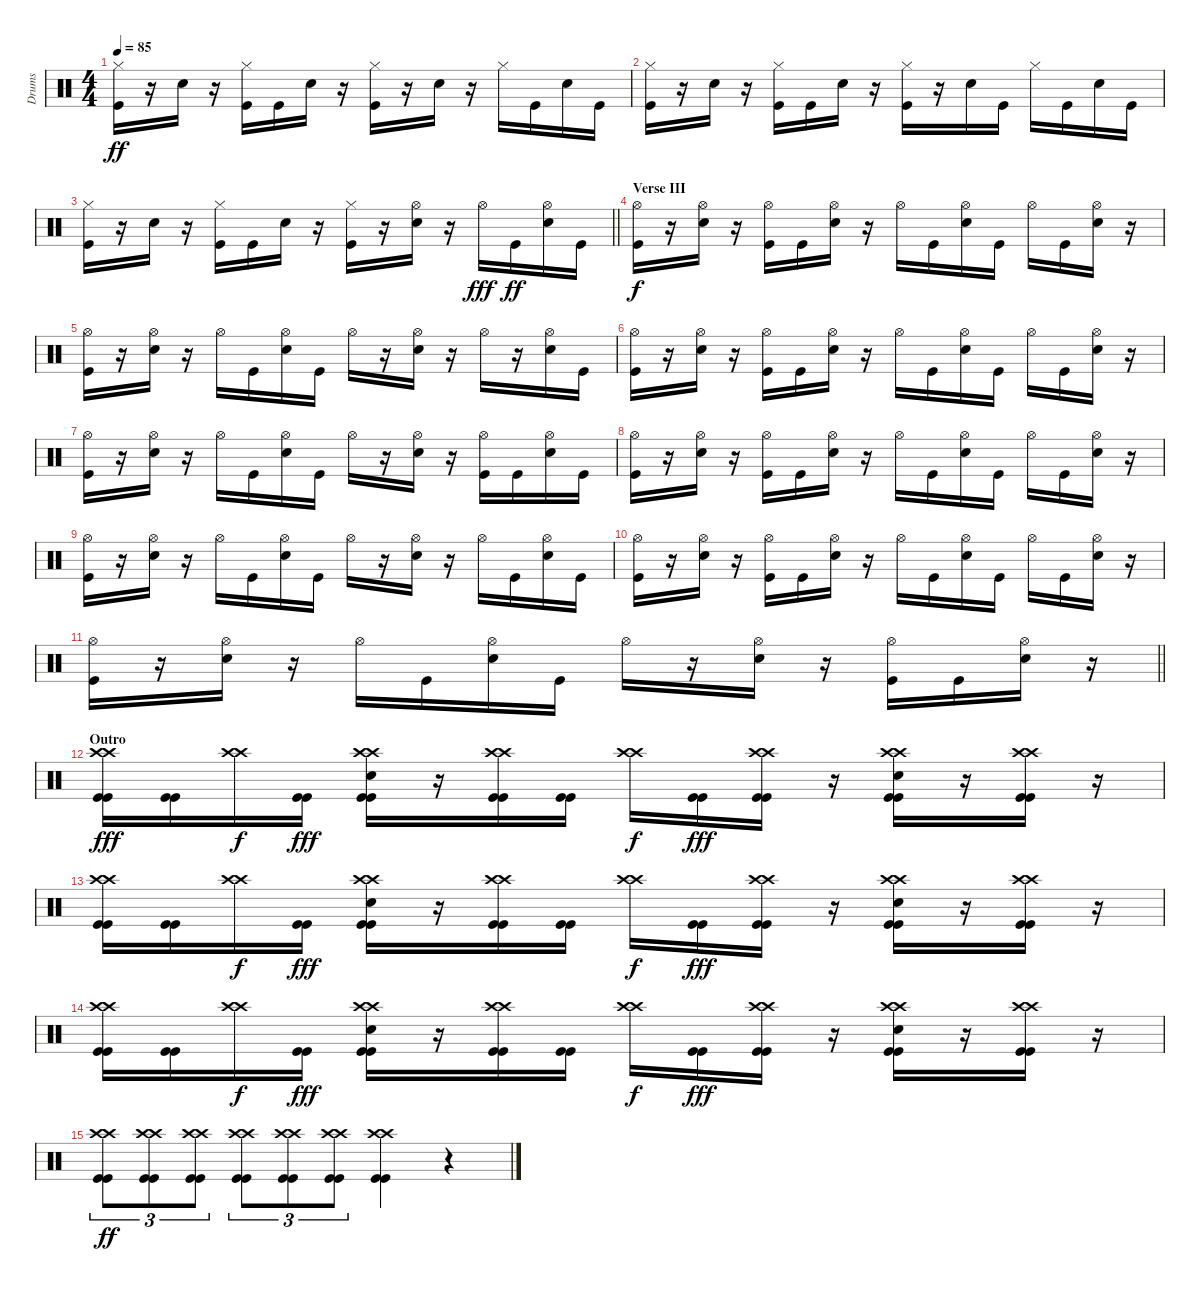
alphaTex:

\track ("Drums" "Drums") {instrument percussion}
\staff {score}
\articulation defaults
\ts (4 4)
\tempo 85
\clef neutral
\ks c
("Hi-Hat (closed)" "Kick (hit)").16{dy ff} r.16 "Electric Snare (hit)".16 r.16 ("Hi-Hat (closed)" "Kick (hit)").16 "Kick (hit)".16 "Electric Snare (hit)".16 r.16 ("Hi-Hat (closed)" "Kick (hit)").16 r.16 "Electric Snare (hit)".16 r.16 "Hi-Hat (closed)".16 "Kick (hit)".16 "Electric Snare (hit)".16 "Kick (hit)".16 |
("Hi-Hat (closed)" "Kick (hit)").16 r.16 "Electric Snare (hit)".16 r.16 ("Hi-Hat (closed)" "Kick (hit)").16 "Kick (hit)".16 "Electric Snare (hit)".16 r.16 ("Hi-Hat (closed)" "Kick (hit)").16 r.16 "Electric Snare (hit)".16 "Kick (hit)".16 "Hi-Hat (closed)".16 "Kick (hit)".16 "Electric Snare (hit)".16 "Kick (hit)".16 |
\barLineRight lightlight
("Hi-Hat (closed)" "Kick (hit)").16 r.16 "Electric Snare (hit)".16 r.16 ("Hi-Hat (closed)" "Kick (hit)").16 "Kick (hit)".16 "Electric Snare (hit)".16 r.16 ("Hi-Hat (closed)" "Kick (hit)").16 r.16 ("Hi-Hat (open)" "Electric Snare (hit)").16 r.16 "Hi-Hat (open)".16{dy fff} "Kick (hit)".16{dy ff} ("Hi-Hat (open)" "Electric Snare (hit)").16 "Kick (hit)".16 |
\section ("" "Verse III")
("Hi-Hat (open)" "Kick (hit)").16{dy f volume 16} r.16 ("Hi-Hat (open)" "Electric Snare (hit)").16 r.16 ("Hi-Hat (open)" "Kick (hit)").16 "Kick (hit)".16 ("Hi-Hat (open)" "Electric Snare (hit)").16 r.16 "Hi-Hat (open)".16 "Kick (hit)".16 ("Hi-Hat (open)" "Electric Snare (hit)").16 "Kick (hit)".16 "Hi-Hat (open)".16 "Kick (hit)".16 ("Hi-Hat (open)" "Electric Snare (hit)").16 r.16 |
("Hi-Hat (open)" "Kick (hit)").16 r.16 ("Hi-Hat (open)" "Electric Snare (hit)").16 r.16 "Hi-Hat (open)".16 "Kick (hit)".16 ("Hi-Hat (open)" "Electric Snare (hit)").16 "Kick (hit)".16 "Hi-Hat (open)".16 r.16 ("Hi-Hat (open)" "Electric Snare (hit)").16 r.16 "Hi-Hat (open)".16 r.16 ("Hi-Hat (open)" "Electric Snare (hit)").16 "Kick (hit)".16 |
("Hi-Hat (open)" "Kick (hit)").16 r.16 ("Hi-Hat (open)" "Electric Snare (hit)").16 r.16 ("Hi-Hat (open)" "Kick (hit)").16 "Kick (hit)".16 ("Hi-Hat (open)" "Electric Snare (hit)").16 r.16 "Hi-Hat (open)".16 "Kick (hit)".16 ("Hi-Hat (open)" "Electric Snare (hit)").16 "Kick (hit)".16 "Hi-Hat (open)".16 "Kick (hit)".16 ("Hi-Hat (open)" "Electric Snare (hit)").16 r.16 |
("Hi-Hat (open)" "Kick (hit)").16 r.16 ("Hi-Hat (open)" "Electric Snare (hit)").16 r.16 "Hi-Hat (open)".16 "Kick (hit)".16 ("Hi-Hat (open)" "Electric Snare (hit)").16 "Kick (hit)".16 "Hi-Hat (open)".16 r.16 ("Hi-Hat (open)" "Electric Snare (hit)").16 r.16 ("Hi-Hat (open)" "Kick (hit)").16 "Kick (hit)".16 ("Hi-Hat (open)" "Electric Snare (hit)").16 "Kick (hit)".16 |
("Hi-Hat (open)" "Kick (hit)").16{volume 16} r.16 ("Hi-Hat (open)" "Electric Snare (hit)").16 r.16 ("Hi-Hat (open)" "Kick (hit)").16 "Kick (hit)".16 ("Hi-Hat (open)" "Electric Snare (hit)").16 r.16 "Hi-Hat (open)".16 "Kick (hit)".16 ("Hi-Hat (open)" "Electric Snare (hit)").16 "Kick (hit)".16 "Hi-Hat (open)".16 "Kick (hit)".16 ("Hi-Hat (open)" "Electric Snare (hit)").16 r.16 |
("Hi-Hat (open)" "Kick (hit)").16 r.16 ("Hi-Hat (open)" "Electric Snare (hit)").16 r.16 "Hi-Hat (open)".16 "Kick (hit)".16 ("Hi-Hat (open)" "Electric Snare (hit)").16 "Kick (hit)".16 "Hi-Hat (open)".16 r.16 ("Hi-Hat (open)" "Electric Snare (hit)").16 r.16 "Hi-Hat (open)".16 "Kick (hit)".16 ("Hi-Hat (open)" "Electric Snare (hit)").16 "Kick (hit)".16 |
("Hi-Hat (open)" "Kick (hit)").16 r.16 ("Hi-Hat (open)" "Electric Snare (hit)").16 r.16 ("Hi-Hat (open)" "Kick (hit)").16 "Kick (hit)".16 ("Hi-Hat (open)" "Electric Snare (hit)").16 r.16 "Hi-Hat (open)".16 "Kick (hit)".16 ("Hi-Hat (open)" "Electric Snare (hit)").16 "Kick (hit)".16 "Hi-Hat (open)".16 "Kick (hit)".16 ("Hi-Hat (open)" "Electric Snare (hit)").16 r.16 |
\barLineRight lightlight
("Hi-Hat (open)" "Kick (hit)").16 r.16 ("Hi-Hat (open)" "Electric Snare (hit)").16 r.16 "Hi-Hat (open)".16 "Kick (hit)".16 ("Hi-Hat (open)" "Electric Snare (hit)").16 "Kick (hit)".16 "Hi-Hat (open)".16 r.16 ("Hi-Hat (open)" "Electric Snare (hit)").16 r.16 ("Hi-Hat (open)" "Kick (hit)").16 "Kick (hit)".16 ("Hi-Hat (open)" "Electric Snare (hit)").16 r.16 |
\section ("" "Outro")
("Crash high (hit)" "Crash high (hit)" "Kick (hit)" "Kick (hit)").16{dy fff} ("Kick (hit)" "Kick (hit)").16 ("Crash high (hit)" "Crash high (hit)").16{dy f} ("Kick (hit)" "Kick (hit)").16{dy fff} ("Crash high (hit)" "Crash high (hit)" "Electric Snare (hit)" "Kick (hit)" "Kick (hit)").16 r.16 ("Crash high (hit)" "Crash high (hit)" "Kick (hit)" "Kick (hit)").16 ("Kick (hit)" "Kick (hit)").16 ("Crash high (hit)" "Crash high (hit)").16{dy f} ("Kick (hit)" "Kick (hit)").16{dy fff} ("Crash high (hit)" "Crash high (hit)" "Kick (hit)" "Kick (hit)").16 r.16 ("Crash high (hit)" "Crash high (hit)" "Electric Snare (hit)" "Kick (hit)" "Kick (hit)").16 r.16 ("Crash high (hit)" "Crash high (hit)" "Kick (hit)" "Kick (hit)").16 r.16 |
("Crash high (hit)" "Crash high (hit)" "Kick (hit)" "Kick (hit)").16 ("Kick (hit)" "Kick (hit)").16 ("Crash high (hit)" "Crash high (hit)").16{dy f} ("Kick (hit)" "Kick (hit)").16{dy fff} ("Crash high (hit)" "Crash high (hit)" "Electric Snare (hit)" "Kick (hit)" "Kick (hit)").16 r.16 ("Crash high (hit)" "Crash high (hit)" "Kick (hit)" "Kick (hit)").16 ("Kick (hit)" "Kick (hit)").16 ("Crash high (hit)" "Crash high (hit)").16{dy f} ("Kick (hit)" "Kick (hit)").16{dy fff} ("Crash high (hit)" "Crash high (hit)" "Kick (hit)" "Kick (hit)").16 r.16 ("Crash high (hit)" "Crash high (hit)" "Electric Snare (hit)" "Kick (hit)" "Kick (hit)").16 r.16 ("Crash high (hit)" "Crash high (hit)" "Kick (hit)" "Kick (hit)").16 r.16 |
("Crash high (hit)" "Crash high (hit)" "Kick (hit)" "Kick (hit)").16 ("Kick (hit)" "Kick (hit)").16 ("Crash high (hit)" "Crash high (hit)").16{dy f} ("Kick (hit)" "Kick (hit)").16{dy fff} ("Crash high (hit)" "Crash high (hit)" "Electric Snare (hit)" "Kick (hit)" "Kick (hit)").16 r.16 ("Crash high (hit)" "Crash high (hit)" "Kick (hit)" "Kick (hit)").16 ("Kick (hit)" "Kick (hit)").16 ("Crash high (hit)" "Crash high (hit)").16{dy f} ("Kick (hit)" "Kick (hit)").16{dy fff} ("Crash high (hit)" "Crash high (hit)" "Kick (hit)" "Kick (hit)").16 r.16 ("Crash high (hit)" "Crash high (hit)" "Electric Snare (hit)" "Kick (hit)" "Kick (hit)").16 r.16 ("Crash high (hit)" "Crash high (hit)" "Kick (hit)" "Kick (hit)").16 r.16 |
("Crash high (hit)" "Crash high (hit)" "Kick (hit)" "Kick (hit)").8{tu (3 2) dy ff volume 11} ("Crash high (hit)" "Crash high (hit)" "Kick (hit)" "Kick (hit)").8{tu (3 2)} ("Crash high (hit)" "Crash high (hit)" "Kick (hit)" "Kick (hit)").8{tu (3 2)} ("Crash high (hit)" "Crash high (hit)" "Kick (hit)" "Kick (hit)").8{tu (3 2)} ("Crash high (hit)" "Crash high (hit)" "Kick (hit)" "Kick (hit)").8{tu (3 2)} ("Crash high (hit)" "Crash high (hit)" "Kick (hit)" "Kick (hit)").8{tu (3 2)} ("Crash high (hit)" "Crash high (hit)" "Kick (hit)" "Kick (hit)").4 r.4
